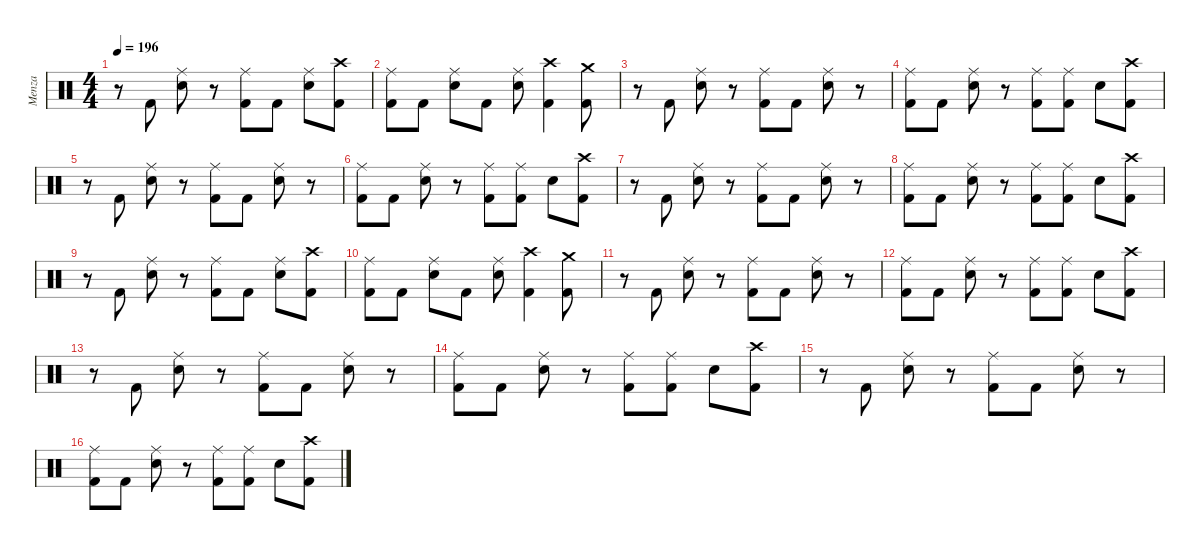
\defaultSystemsLayout 4
\hideDynamics
\bracketExtendMode nobrackets
\firstSystemTrackNameMode fullname
\otherSystemsTrackNameOrientation horizontal
\track ("Menza" "drm.") {instrument percussion}
\staff {score}
\articulation defaults
\ts (4 4)
\tempo 196
\clef neutral
\ks c
r.8{dy fff beam Down} "Kick (hit) 2".8{beam Up} ("Ride (middle)" "Snare (hit) 2").8{dy ff beam Down} r.8{beam Down} ("Ride (middle)" "Kick (hit) 2").8{beam Down} "Kick (hit) 2".8{dy fff beam Down} ("Ride (middle)" "Snare (hit) 2").8{dy ff beam Down} ("Crash high (hit)" "Kick (hit) 2").8{beam Down} |
("Ride (middle)" "Kick (hit) 2").8{beam Down} "Kick (hit) 2".8{dy fff beam Down} ("Ride (middle)" "Snare (hit) 2").8{dy ff beam Down} "Kick (hit) 2".8{dy fff beam Down} ("Ride (middle)" "Snare (hit) 2").8{dy ff beam Down} ("Crash high (hit)" "Kick (hit) 2").4{beam Down} ("Crash medium (hit)" "Kick (hit) 2").8{dy fff beam Down} |
r.8{beam Down} "Kick (hit) 2".8{beam Up} ("Ride (middle)" "Snare (hit) 2").8{dy ff beam Down} r.8{beam Down} ("Ride (middle)" "Kick (hit) 2").8{beam Down} "Kick (hit) 2".8{dy fff beam Down} ("Ride (middle)" "Snare (hit) 2").8{dy ff beam Down} r.8{beam Down} |
("Ride (middle)" "Kick (hit) 2").8{beam Down} "Kick (hit) 2".8{dy fff beam Down} ("Ride (middle)" "Snare (hit) 2").8{dy ff beam Down} r.8{beam Down} ("Ride (middle)" "Kick (hit) 2").8{beam Down} ("Ride (middle)" "Kick (hit) 2").8{dy f beam Down} "Snare (hit) 2".8{dy fff beam Down} ("Crash high (hit)" "Kick (hit) 2").8{beam Down} |
r.8{beam Down} "Kick (hit) 2".8{beam Up} ("Ride (middle)" "Snare (hit) 2").8{dy ff beam Down} r.8{beam Down} ("Ride (middle)" "Kick (hit) 2").8{beam Down} "Kick (hit) 2".8{dy fff beam Down} ("Ride (middle)" "Snare (hit) 2").8{dy ff beam Down} r.8{beam Down} |
("Ride (middle)" "Kick (hit) 2").8{beam Down} "Kick (hit) 2".8{dy fff beam Down} ("Ride (middle)" "Snare (hit) 2").8{dy ff beam Down} r.8{beam Down} ("Ride (middle)" "Kick (hit) 2").8{beam Down} ("Ride (middle)" "Kick (hit) 2").8{dy f beam Down} "Snare (hit) 2".8{dy fff beam Down} ("Crash high (hit)" "Kick (hit) 2").8{beam Down} |
r.8{beam Down} "Kick (hit) 2".8{beam Up} ("Ride (middle)" "Snare (hit) 2").8{dy ff beam Down} r.8{beam Down} ("Ride (middle)" "Kick (hit) 2").8{beam Down} "Kick (hit) 2".8{dy fff beam Down} ("Ride (middle)" "Snare (hit) 2").8{dy ff beam Down} r.8{beam Down} |
("Ride (middle)" "Kick (hit) 2").8{beam Down} "Kick (hit) 2".8{dy fff beam Down} ("Ride (middle)" "Snare (hit) 2").8{dy ff beam Down} r.8{beam Down} ("Ride (middle)" "Kick (hit) 2").8{beam Down} ("Ride (middle)" "Kick (hit) 2").8{dy f beam Down} "Snare (hit) 2".8{dy fff beam Down} ("Crash high (hit)" "Kick (hit) 2").8{beam Down} |
r.8{beam Down} "Kick (hit) 2".8{beam Up} ("Ride (middle)" "Snare (hit) 2").8{dy ff beam Down} r.8{beam Down} ("Ride (middle)" "Kick (hit) 2").8{beam Down} "Kick (hit) 2".8{dy fff beam Down} ("Ride (middle)" "Snare (hit) 2").8{dy ff beam Down} ("Crash high (hit)" "Kick (hit) 2").8{beam Down} |
("Ride (middle)" "Kick (hit) 2").8{beam Down} "Kick (hit) 2".8{dy fff beam Down} ("Ride (middle)" "Snare (hit) 2").8{dy ff beam Down} "Kick (hit) 2".8{dy fff beam Down} ("Ride (middle)" "Snare (hit) 2").8{dy ff beam Down} ("Crash high (hit)" "Kick (hit) 2").4{beam Down} ("Crash medium (hit)" "Kick (hit) 2").8{dy fff beam Down} |
r.8{beam Down} "Kick (hit) 2".8{beam Up} ("Ride (middle)" "Snare (hit) 2").8{dy ff beam Down} r.8{beam Down} ("Ride (middle)" "Kick (hit) 2").8{beam Down} "Kick (hit) 2".8{dy fff beam Down} ("Ride (middle)" "Snare (hit) 2").8{dy ff beam Down} r.8{beam Down} |
("Ride (middle)" "Kick (hit) 2").8{beam Down} "Kick (hit) 2".8{dy fff beam Down} ("Ride (middle)" "Snare (hit) 2").8{dy ff beam Down} r.8{beam Down} ("Ride (middle)" "Kick (hit) 2").8{beam Down} ("Ride (middle)" "Kick (hit) 2").8{dy f beam Down} "Snare (hit) 2".8{dy fff beam Down} ("Crash high (hit)" "Kick (hit) 2").8{beam Down} |
r.8{beam Down} "Kick (hit) 2".8{beam Up} ("Ride (middle)" "Snare (hit) 2").8{dy ff beam Down} r.8{beam Down} ("Ride (middle)" "Kick (hit) 2").8{beam Down} "Kick (hit) 2".8{dy fff beam Down} ("Ride (middle)" "Snare (hit) 2").8{dy ff beam Down} r.8{beam Down} |
("Ride (middle)" "Kick (hit) 2").8{beam Down} "Kick (hit) 2".8{dy fff beam Down} ("Ride (middle)" "Snare (hit) 2").8{dy ff beam Down} r.8{beam Down} ("Ride (middle)" "Kick (hit) 2").8{beam Down} ("Ride (middle)" "Kick (hit) 2").8{dy f beam Down} "Snare (hit) 2".8{dy fff beam Down} ("Crash high (hit)" "Kick (hit) 2").8{beam Down} |
r.8{beam Down} "Kick (hit) 2".8{beam Up} ("Ride (middle)" "Snare (hit) 2").8{dy ff beam Down} r.8{beam Down} ("Ride (middle)" "Kick (hit) 2").8{beam Down} "Kick (hit) 2".8{dy fff beam Down} ("Ride (middle)" "Snare (hit) 2").8{dy ff beam Down} r.8{beam Down} |
("Ride (middle)" "Kick (hit) 2").8{beam Down} "Kick (hit) 2".8{dy fff beam Down} ("Ride (middle)" "Snare (hit) 2").8{dy ff beam Down} r.8{beam Down} ("Ride (middle)" "Kick (hit) 2").8{beam Down} ("Ride (middle)" "Kick (hit) 2").8{dy f beam Down} "Snare (hit) 2".8{dy fff beam Down} ("Crash high (hit)" "Kick (hit) 2").8{beam Down}
